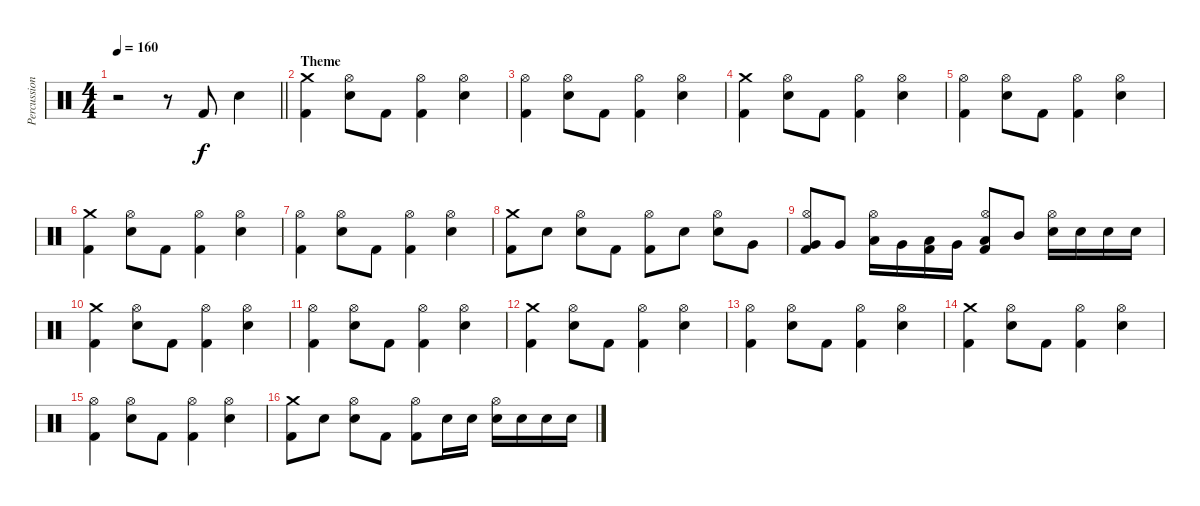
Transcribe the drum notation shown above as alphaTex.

\track ("Percussioni" "Percussion") {instrument percussion}
\staff {score}
\articulation defaults
\ts (4 4)
\tempo 160
\clef neutral
\barLineRight lightlight
\ks c
r.2{dy f} r.8 "Kick (hit) 2".8 "Electric Snare (hit)".4 |
\section ("" "Theme")
("Crash medium (hit)" "Kick (hit) 2").4 ("Hi-Hat (open)" "Electric Snare (hit)").8 "Kick (hit) 2".8 ("Hi-Hat (open)" "Kick (hit) 2").4 ("Hi-Hat (open)" "Electric Snare (hit)").4 |
("Hi-Hat (open)" "Kick (hit) 2").4 ("Hi-Hat (open)" "Electric Snare (hit)").8 "Kick (hit) 2".8 ("Hi-Hat (open)" "Kick (hit) 2").4 ("Hi-Hat (open)" "Electric Snare (hit)").4 |
("Crash medium (hit)" "Kick (hit) 2").4 ("Hi-Hat (open)" "Electric Snare (hit)").8 "Kick (hit) 2".8 ("Hi-Hat (open)" "Kick (hit) 2").4 ("Hi-Hat (open)" "Electric Snare (hit)").4 |
("Hi-Hat (open)" "Kick (hit) 2").4 ("Hi-Hat (open)" "Electric Snare (hit)").8 "Kick (hit) 2".8 ("Hi-Hat (open)" "Kick (hit) 2").4 ("Hi-Hat (open)" "Electric Snare (hit)").4 |
("Crash medium (hit)" "Kick (hit) 2").4 ("Hi-Hat (open)" "Electric Snare (hit)").8 "Kick (hit) 2".8 ("Hi-Hat (open)" "Kick (hit) 2").4 ("Hi-Hat (open)" "Electric Snare (hit)").4 |
("Hi-Hat (open)" "Kick (hit) 2").4 ("Hi-Hat (open)" "Electric Snare (hit)").8 "Kick (hit) 2".8 ("Hi-Hat (open)" "Kick (hit) 2").4 ("Hi-Hat (open)" "Electric Snare (hit)").4 |
("Crash medium (hit)" "Kick (hit) 2").8 "Electric Snare (hit)".8 ("Hi-Hat (open)" "Electric Snare (hit)").8 "Kick (hit) 2".8 ("Hi-Hat (open)" "Kick (hit) 2").8 "Electric Snare (hit)".8 ("Hi-Hat (open)" "Electric Snare (hit)").8 "Very Low Tom (hit)".8 |
("Hi-Hat (open)" "Very Low Tom (hit)" "Kick (hit) 2").8 "Very Low Tom (hit)".8 ("Hi-Hat (open)" "Low Tom (hit)").16 "Very Low Tom (hit)".16 ("Low Tom (hit)" "Kick (hit) 2").16 "Very Low Tom (hit)".16 ("Hi-Hat (open)" "Low Tom (hit)" "Kick (hit) 2").8 "Mid Tom (hit)".8 ("Hi-Hat (open)" "Electric Snare (hit)").16 "Electric Snare (hit)".16 "Electric Snare (hit)".16 "Electric Snare (hit)".16 |
("Crash medium (hit)" "Kick (hit) 2").4 ("Hi-Hat (open)" "Electric Snare (hit)").8 "Kick (hit) 2".8 ("Hi-Hat (open)" "Kick (hit) 2").4 ("Hi-Hat (open)" "Electric Snare (hit)").4 |
("Hi-Hat (open)" "Kick (hit) 2").4 ("Hi-Hat (open)" "Electric Snare (hit)").8 "Kick (hit) 2".8 ("Hi-Hat (open)" "Kick (hit) 2").4 ("Hi-Hat (open)" "Electric Snare (hit)").4 |
("Crash medium (hit)" "Kick (hit) 2").4 ("Hi-Hat (open)" "Electric Snare (hit)").8 "Kick (hit) 2".8 ("Hi-Hat (open)" "Kick (hit) 2").4 ("Hi-Hat (open)" "Electric Snare (hit)").4 |
("Hi-Hat (open)" "Kick (hit) 2").4 ("Hi-Hat (open)" "Electric Snare (hit)").8 "Kick (hit) 2".8 ("Hi-Hat (open)" "Kick (hit) 2").4 ("Hi-Hat (open)" "Electric Snare (hit)").4 |
("Crash medium (hit)" "Kick (hit) 2").4 ("Hi-Hat (open)" "Electric Snare (hit)").8 "Kick (hit) 2".8 ("Hi-Hat (open)" "Kick (hit) 2").4 ("Hi-Hat (open)" "Electric Snare (hit)").4 |
("Hi-Hat (open)" "Kick (hit) 2").4 ("Hi-Hat (open)" "Electric Snare (hit)").8 "Kick (hit) 2".8 ("Hi-Hat (open)" "Kick (hit) 2").4 ("Hi-Hat (open)" "Electric Snare (hit)").4 |
("Crash medium (hit)" "Kick (hit) 2").8 "Electric Snare (hit)".8 ("Hi-Hat (open)" "Electric Snare (hit)").8 "Kick (hit) 2".8 ("Hi-Hat (open)" "Kick (hit) 2").8 "Electric Snare (hit)".16 "Electric Snare (hit)".16 ("Hi-Hat (open)" "Electric Snare (hit)").16 "Electric Snare (hit)".16 "Electric Snare (hit)".16 "Electric Snare (hit)".16
